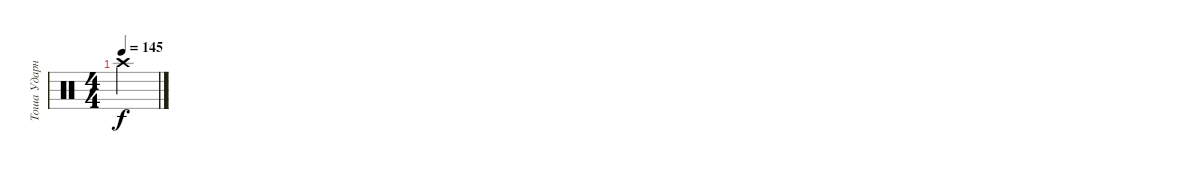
\track ("Тоша Ударные" "Тоша Ударн") {instrument percussion}
\staff {score}
\articulation defaults
\ts (4 4)
\tempo 145
\clef neutral
\ks c "Crash high (hit)".4{dy f}
